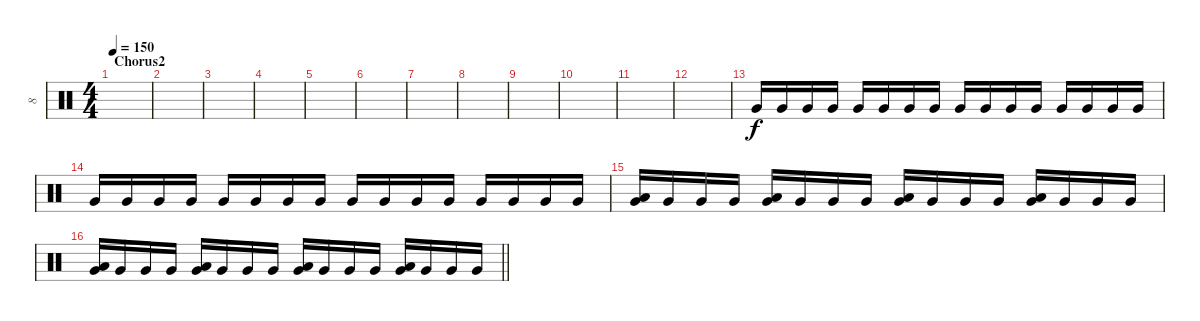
\track ("8" "8") {instrument percussion}
\staff {score}
\articulation defaults
\ts (4 4)
\section ("" "Chorus2")
\tempo 150
\clef neutral
\ks c
|
|
|
|
|
|
|
|
|
|
|
|
"Very Low Tom (hit)".16{volume 7} "Very Low Tom (hit)".16 "Very Low Tom (hit)".16 "Very Low Tom (hit)".16 "Very Low Tom (hit)".16 "Very Low Tom (hit)".16 "Very Low Tom (hit)".16 "Very Low Tom (hit)".16 "Very Low Tom (hit)".16 "Very Low Tom (hit)".16 "Very Low Tom (hit)".16 "Very Low Tom (hit)".16 "Very Low Tom (hit)".16 "Very Low Tom (hit)".16 "Very Low Tom (hit)".16 "Very Low Tom (hit)".16 |
"Very Low Tom (hit)".16{volume 11} "Very Low Tom (hit)".16 "Very Low Tom (hit)".16 "Very Low Tom (hit)".16 "Very Low Tom (hit)".16 "Very Low Tom (hit)".16 "Very Low Tom (hit)".16 "Very Low Tom (hit)".16 "Very Low Tom (hit)".16 "Very Low Tom (hit)".16 "Very Low Tom (hit)".16 "Very Low Tom (hit)".16 "Very Low Tom (hit)".16 "Very Low Tom (hit)".16 "Very Low Tom (hit)".16 "Very Low Tom (hit)".16 |
("Very Low Tom (hit)" "Low Tom (hit)").16{volume 13} "Very Low Tom (hit)".16 "Very Low Tom (hit)".16 "Very Low Tom (hit)".16 ("Very Low Tom (hit)" "Low Tom (hit)").16 "Very Low Tom (hit)".16 "Very Low Tom (hit)".16 "Very Low Tom (hit)".16 ("Very Low Tom (hit)" "Low Tom (hit)").16 "Very Low Tom (hit)".16 "Very Low Tom (hit)".16 "Very Low Tom (hit)".16 ("Very Low Tom (hit)" "Low Tom (hit)").16 "Very Low Tom (hit)".16 "Very Low Tom (hit)".16 "Very Low Tom (hit)".16 |
\barLineRight lightlight
("Very Low Tom (hit)" "Low Tom (hit)").16 "Very Low Tom (hit)".16 "Very Low Tom (hit)".16 "Very Low Tom (hit)".16 ("Very Low Tom (hit)" "Low Tom (hit)").16 "Very Low Tom (hit)".16 "Very Low Tom (hit)".16 "Very Low Tom (hit)".16 ("Very Low Tom (hit)" "Low Tom (hit)").16 "Very Low Tom (hit)".16 "Very Low Tom (hit)".16 "Very Low Tom (hit)".16 ("Very Low Tom (hit)" "Low Tom (hit)").16 "Very Low Tom (hit)".16 "Very Low Tom (hit)".16 "Very Low Tom (hit)".16
